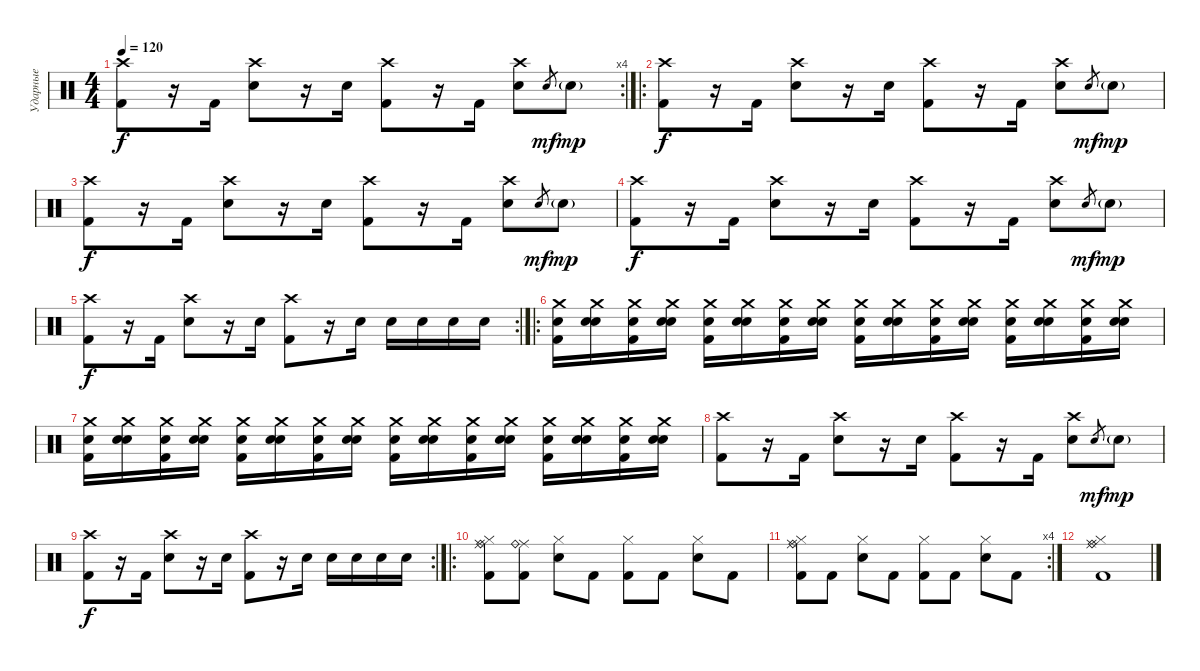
\track ("Ударные" "Ударные") {instrument percussion}
\staff {score}
\articulation defaults
\rc 4
\ts (4 4)
\tempo 120
\clef neutral
\ks c
("Crash high (hit)" "Kick (hit) 2").8{dy f} r.16 "Kick (hit) 2".16 ("Crash high (hit)" "Electric Snare (hit)").8 r.16 "Electric Snare (hit)".16 ("Crash high (hit)" "Kick (hit) 2").8 r.16 "Kick (hit) 2".16 ("Crash high (hit)" "Electric Snare (hit)").8 "Electric Snare (hit)".8{gr dy mf} "Electric Snare (hit)"{g}.8{dy mp} |
\ro
("Crash high (hit)" "Kick (hit) 2").8{dy f} r.16 "Kick (hit) 2".16 ("Crash high (hit)" "Electric Snare (hit)").8 r.16 "Electric Snare (hit)".16 ("Crash high (hit)" "Kick (hit) 2").8 r.16 "Kick (hit) 2".16 ("Crash high (hit)" "Electric Snare (hit)").8 "Electric Snare (hit)".8{gr dy mf} "Electric Snare (hit)"{g}.8{dy mp} |
("Crash high (hit)" "Kick (hit) 2").8{dy f} r.16 "Kick (hit) 2".16 ("Crash high (hit)" "Electric Snare (hit)").8 r.16 "Electric Snare (hit)".16 ("Crash high (hit)" "Kick (hit) 2").8 r.16 "Kick (hit) 2".16 ("Crash high (hit)" "Electric Snare (hit)").8 "Electric Snare (hit)".8{gr dy mf} "Electric Snare (hit)"{g}.8{dy mp} |
("Crash high (hit)" "Kick (hit) 2").8{dy f} r.16 "Kick (hit) 2".16 ("Crash high (hit)" "Electric Snare (hit)").8 r.16 "Electric Snare (hit)".16 ("Crash high (hit)" "Kick (hit) 2").8 r.16 "Kick (hit) 2".16 ("Crash high (hit)" "Electric Snare (hit)").8 "Electric Snare (hit)".8{gr dy mf} "Electric Snare (hit)"{g}.8{dy mp} |
\rc 2
("Crash high (hit)" "Kick (hit) 2").8{dy f} r.16 "Kick (hit) 2".16 ("Crash high (hit)" "Electric Snare (hit)").8 r.16 "Electric Snare (hit)".16 ("Crash high (hit)" "Kick (hit) 2").8 r.16 "Electric Snare (hit)".16 "Electric Snare (hit)".16 "Electric Snare (hit)".16 "Electric Snare (hit)".16 "Electric Snare (hit)".16 |
\ro
("Snare (hit) 2" "Kick (hit) 2" "Crash medium (hit)").16{volume 13} ("Snare (hit) 2" "Electric Snare (hit)" "Crash medium (hit)").16 ("Snare (hit) 2" "Kick (hit) 2" "Crash medium (hit)").16 ("Snare (hit) 2" "Electric Snare (hit)" "Crash medium (hit)").16 ("Snare (hit) 2" "Kick (hit) 2" "Crash medium (hit)").16 ("Snare (hit) 2" "Electric Snare (hit)" "Crash medium (hit)").16 ("Snare (hit) 2" "Kick (hit) 2" "Crash medium (hit)").16 ("Snare (hit) 2" "Electric Snare (hit)" "Crash medium (hit)").16 ("Snare (hit) 2" "Kick (hit) 2" "Crash medium (hit)").16 ("Snare (hit) 2" "Electric Snare (hit)" "Crash medium (hit)").16 ("Snare (hit) 2" "Kick (hit) 2" "Crash medium (hit)").16 ("Snare (hit) 2" "Electric Snare (hit)" "Crash medium (hit)").16 ("Snare (hit) 2" "Kick (hit) 2" "Crash medium (hit)").16 ("Snare (hit) 2" "Electric Snare (hit)" "Crash medium (hit)").16 ("Snare (hit) 2" "Kick (hit) 2" "Crash medium (hit)").16 ("Snare (hit) 2" "Electric Snare (hit)" "Crash medium (hit)").16 |
("Snare (hit) 2" "Kick (hit) 2" "Crash medium (hit)").16 ("Snare (hit) 2" "Electric Snare (hit)" "Crash medium (hit)").16 ("Snare (hit) 2" "Kick (hit) 2" "Crash medium (hit)").16 ("Snare (hit) 2" "Electric Snare (hit)" "Crash medium (hit)").16 ("Snare (hit) 2" "Kick (hit) 2" "Crash medium (hit)").16 ("Snare (hit) 2" "Electric Snare (hit)" "Crash medium (hit)").16 ("Snare (hit) 2" "Kick (hit) 2" "Crash medium (hit)").16 ("Snare (hit) 2" "Electric Snare (hit)" "Crash medium (hit)").16 ("Snare (hit) 2" "Kick (hit) 2" "Crash medium (hit)").16 ("Snare (hit) 2" "Electric Snare (hit)" "Crash medium (hit)").16 ("Snare (hit) 2" "Kick (hit) 2" "Crash medium (hit)").16 ("Snare (hit) 2" "Electric Snare (hit)" "Crash medium (hit)").16 ("Snare (hit) 2" "Kick (hit) 2" "Crash medium (hit)").16 ("Snare (hit) 2" "Electric Snare (hit)" "Crash medium (hit)").16 ("Snare (hit) 2" "Kick (hit) 2" "Crash medium (hit)").16 ("Snare (hit) 2" "Electric Snare (hit)" "Crash medium (hit)").16 |
("Crash high (hit)" "Kick (hit) 2").8 r.16 "Kick (hit) 2".16 ("Crash high (hit)" "Electric Snare (hit)").8 r.16 "Electric Snare (hit)".16 ("Crash high (hit)" "Kick (hit) 2").8 r.16 "Kick (hit) 2".16 ("Crash high (hit)" "Electric Snare (hit)").8 "Electric Snare (hit)".8{gr dy mf} "Electric Snare (hit)"{g}.8{dy mp} |
\rc 2
("Crash high (hit)" "Kick (hit) 2").8{dy f} r.16 "Kick (hit) 2".16 ("Crash high (hit)" "Electric Snare (hit)").8 r.16 "Electric Snare (hit)".16 ("Crash high (hit)" "Kick (hit) 2").8 r.16 "Electric Snare (hit)".16 "Electric Snare (hit)".16 "Electric Snare (hit)".16 "Electric Snare (hit)".16 "Electric Snare (hit)".16 |
\ro
("Hi-Hat (closed)" "Ride (middle)" "Ride (bell)" "Kick (hit) 2").8 ("Ride (middle)" "Ride (bell)" "Kick (hit) 2").8 ("Hi-Hat (closed)" "Electric Snare (hit)").8 "Kick (hit) 2".8 ("Hi-Hat (closed)" "Kick (hit) 2").8 "Kick (hit) 2".8 ("Hi-Hat (closed)" "Electric Snare (hit)").8 "Kick (hit) 2".8 |
\rc 4
("Hi-Hat (closed)" "Ride (middle)" "Ride (bell)" "Kick (hit) 2").8 "Kick (hit) 2".8 ("Hi-Hat (closed)" "Electric Snare (hit)").8 "Kick (hit) 2".8 ("Hi-Hat (closed)" "Kick (hit) 2").8 "Kick (hit) 2".8 ("Hi-Hat (closed)" "Electric Snare (hit)").8 "Kick (hit) 2".8 |
("Hi-Hat (closed)" "Ride (middle)" "Ride (bell)" "Kick (hit) 2").1
